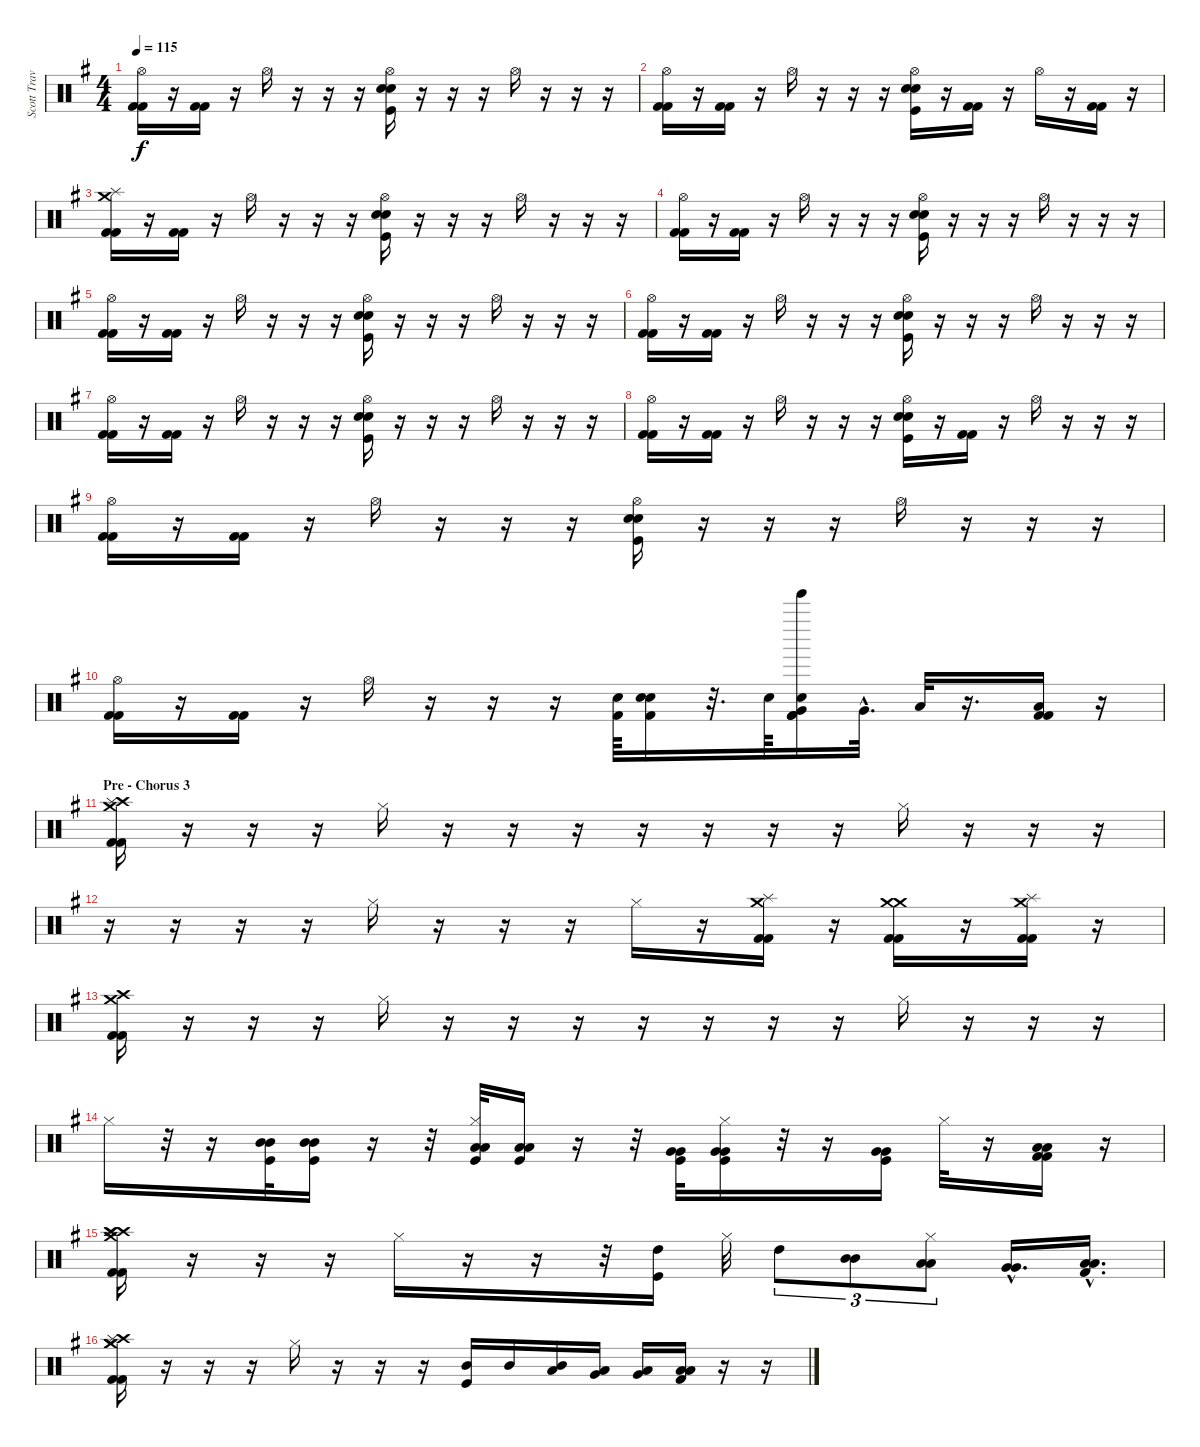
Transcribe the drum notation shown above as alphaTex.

\track ("Scott Travis" "Scott Trav") {instrument percussion}
\staff {score}
\articulation defaults
\ts (4 4)
\tempo 115
\clef neutral
\ks eminor
("Hi-Hat (open)" "Kick (hit) 2" "Kick (hit) 2").16{dy f} r.16 ("Kick (hit) 2" "Kick (hit) 2").16 r.16 "Hi-Hat (open)".16 r.16 r.16 r.16 ("Hi-Hat (open)" "Snare (hit) 2" "Snare (hit) 2" "Kick (hit)").16 r.16 r.16 r.16 "Hi-Hat (open)".16 r.16 r.16 r.16 |
("Hi-Hat (open)" "Kick (hit) 2" "Kick (hit) 2").16 r.16 ("Kick (hit) 2" "Kick (hit) 2").16 r.16 "Hi-Hat (open)".16 r.16 r.16 r.16 ("Hi-Hat (open)" "Snare (hit) 2" "Snare (hit) 2" "Kick (hit)").16 r.16 ("Kick (hit) 2" "Kick (hit) 2").16 r.16 "Hi-Hat (open)".16 r.16 ("Kick (hit) 2" "Kick (hit) 2").16 r.16 |
("Crash medium (hit)" "Splash (hit)" "Kick (hit) 2" "Kick (hit) 2").16 r.16 ("Kick (hit) 2" "Kick (hit) 2").16 r.16 "Hi-Hat (open)".16 r.16 r.16 r.16 ("Hi-Hat (open)" "Snare (hit) 2" "Snare (hit) 2" "Kick (hit)").16 r.16 r.16 r.16 "Hi-Hat (open)".16 r.16 r.16 r.16 |
("Hi-Hat (open)" "Kick (hit) 2" "Kick (hit) 2").16 r.16 ("Kick (hit) 2" "Kick (hit) 2").16 r.16 "Hi-Hat (open)".16 r.16 r.16 r.16 ("Hi-Hat (open)" "Snare (hit) 2" "Snare (hit) 2" "Kick (hit)").16 r.16 r.16 r.16 "Hi-Hat (open)".16 r.16 r.16 r.16 |
("Hi-Hat (open)" "Kick (hit) 2" "Kick (hit) 2").16 r.16 ("Kick (hit) 2" "Kick (hit) 2").16 r.16 "Hi-Hat (open)".16 r.16 r.16 r.16 ("Hi-Hat (open)" "Snare (hit) 2" "Snare (hit) 2" "Kick (hit)").16 r.16 r.16 r.16 "Hi-Hat (open)".16 r.16 r.16 r.16 |
("Hi-Hat (open)" "Kick (hit) 2" "Kick (hit) 2").16 r.16 ("Kick (hit) 2" "Kick (hit) 2").16 r.16 "Hi-Hat (open)".16 r.16 r.16 r.16 ("Hi-Hat (open)" "Snare (hit) 2" "Snare (hit) 2" "Kick (hit)").16 r.16 r.16 r.16 "Hi-Hat (open)".16 r.16 r.16 r.16 |
("Hi-Hat (open)" "Kick (hit) 2" "Kick (hit) 2").16 r.16 ("Kick (hit) 2" "Kick (hit) 2").16 r.16 "Hi-Hat (open)".16 r.16 r.16 r.16 ("Hi-Hat (open)" "Snare (hit) 2" "Snare (hit) 2" "Kick (hit)").16 r.16 r.16 r.16 "Hi-Hat (open)".16 r.16 r.16 r.16 |
("Hi-Hat (open)" "Kick (hit) 2" "Kick (hit) 2").16 r.16 ("Kick (hit) 2" "Kick (hit) 2").16 r.16 "Hi-Hat (open)".16 r.16 r.16 r.16 ("Hi-Hat (open)" "Snare (hit) 2" "Snare (hit) 2" "Kick (hit)").16 r.16 ("Kick (hit) 2" "Kick (hit) 2").16 r.16 "Hi-Hat (open)".16 r.16 r.16 r.16 |
("Hi-Hat (open)" "Kick (hit) 2" "Kick (hit) 2").16 r.16 ("Kick (hit) 2" "Kick (hit) 2").16 r.16 "Hi-Hat (open)".16 r.16 r.16 r.16 ("Hi-Hat (open)" "Snare (hit) 2" "Snare (hit) 2" "Kick (hit)").16 r.16 r.16 r.16 "Hi-Hat (open)".16 r.16 r.16 r.16 |
("Hi-Hat (open)" "Kick (hit) 2" "Kick (hit) 2").16 r.16 ("Kick (hit) 2" "Kick (hit) 2").16 r.16 "Hi-Hat (open)".16 r.16 r.16 r.16 ("Snare (hit) 2" "Kick (hit) 2").64 ("Snare (hit) 2" "Snare (hit) 2" "Kick (hit) 2").16 r.32{d} "Snare (hit) 2".64 ("Very Low Tom (hit)" "Snare (hit) 2" "Tinkle Bell (hit)" "Kick (hit) 2" "Kick (hit) 2").16 "Very Low Tom (hit)"{hac}.32{d} "Low Floor Tom (hit)".32 r.16{d} ("Low Floor Tom (hit)" "Kick (hit) 2" "Kick (hit) 2").16 r.16 |
\section ("" "Pre - Chorus 3")
("Crash high (hit)" "Crash medium (hit)" "Splash (hit)" "Kick (hit) 2" "Kick (hit) 2").16 r.16 r.16 r.16 "Hi-Hat (closed)".16 r.16 r.16 r.16 r.16 r.16 r.16 r.16 "Hi-Hat (closed)".16 r.16 r.16 r.16 |
r.16 r.16 r.16 r.16 "Hi-Hat (closed)".16 r.16 r.16 r.16 "Hi-Hat (closed)".16 r.16 ("Splash (hit)" "Crash medium (hit)" "Kick (hit) 2" "Kick (hit) 2").16 r.16 ("Crash medium (hit)" "Crash medium (hit)" "Kick (hit) 2" "Kick (hit) 2").16 r.16 ("Crash medium (hit)" "Splash (hit)" "Kick (hit) 2" "Kick (hit) 2").16 r.16 |
("Crash medium (hit)" "Crash high (hit)" "Kick (hit) 2" "Kick (hit) 2").16 r.16 r.16 r.16 "Hi-Hat (closed)".16 r.16 r.16 r.16 r.16 r.16 r.16 r.16 "Hi-Hat (closed)".16 r.16 r.16 r.16 |
"Hi-Hat (closed)".16 r.32 r.16 ("Mid Tom (hit)" "Mid Tom (hit)" "Kick (hit)").32 ("Mid Tom (hit)" "Mid Tom (hit)" "Kick (hit)").16 r.16 r.32 ("Hi-Hat (closed)" "Low Tom (hit)" "Low Tom (hit)" "Kick (hit)").32 ("Low Tom (hit)" "Low Tom (hit)" "Kick (hit)").16 r.16 r.32 ("Very Low Tom (hit)" "Very Low Tom (hit)" "Kick (hit)").32 ("Hi-Hat (closed)" "Very Low Tom (hit)" "Very Low Tom (hit)" "Kick (hit)").16 r.32 r.16 ("Very Low Tom (hit)" "Very Low Tom (hit)" "Kick (hit)").16 "Hi-Hat (closed)".32 r.16 ("Low Floor Tom (hit)" "Low Floor Tom (hit)" "Kick (hit) 2" "Kick (hit) 2").16 r.16 |
("Crash high (hit)" "Crash high (hit)" "Crash medium (hit)" "Splash (hit)" "Kick (hit) 2" "Kick (hit) 2").16 r.16 r.16 r.16 "Hi-Hat (closed)".16 r.16 r.16 r.32 ("High Tom (hit)" "Kick (hit)").16 "Hi-Hat (closed)".32 "High Tom (hit)".8{tu (3 2)} ("Mid Tom (hit)" "Mid Tom (hit)").8{tu (3 2)} ("Hi-Hat (closed)" "Low Tom (hit)" "Low Tom (hit)").8{tu (3 2)} ("Very Low Tom (hit)"{hac} "Very Low Tom (hit)"{hac}).16{d} ("Low Floor Tom (hit)"{hac} "Low Floor Tom (hit)"{hac} "Kick (hit) 2"{hac}).16{d} |
("Crash high (hit)" "Crash medium (hit)" "Crash medium (hit)" "Splash (hit)" "Kick (hit) 2" "Kick (hit) 2").16 r.16 r.16 r.16 "Hi-Hat (closed)".16 r.16 r.16 r.16 ("Mid Tom (hit)" "Kick (hit)").16 "Mid Tom (hit)".16 ("Low Tom (hit)" "Mid Tom (hit)").16 ("Very Low Tom (hit)" "Low Tom (hit)").16 ("Low Floor Tom (hit)" "Very Low Tom (hit)").16 ("Low Floor Tom (hit)" "Low Floor Tom (hit)" "Kick (hit) 2").16 r.16 r.16
